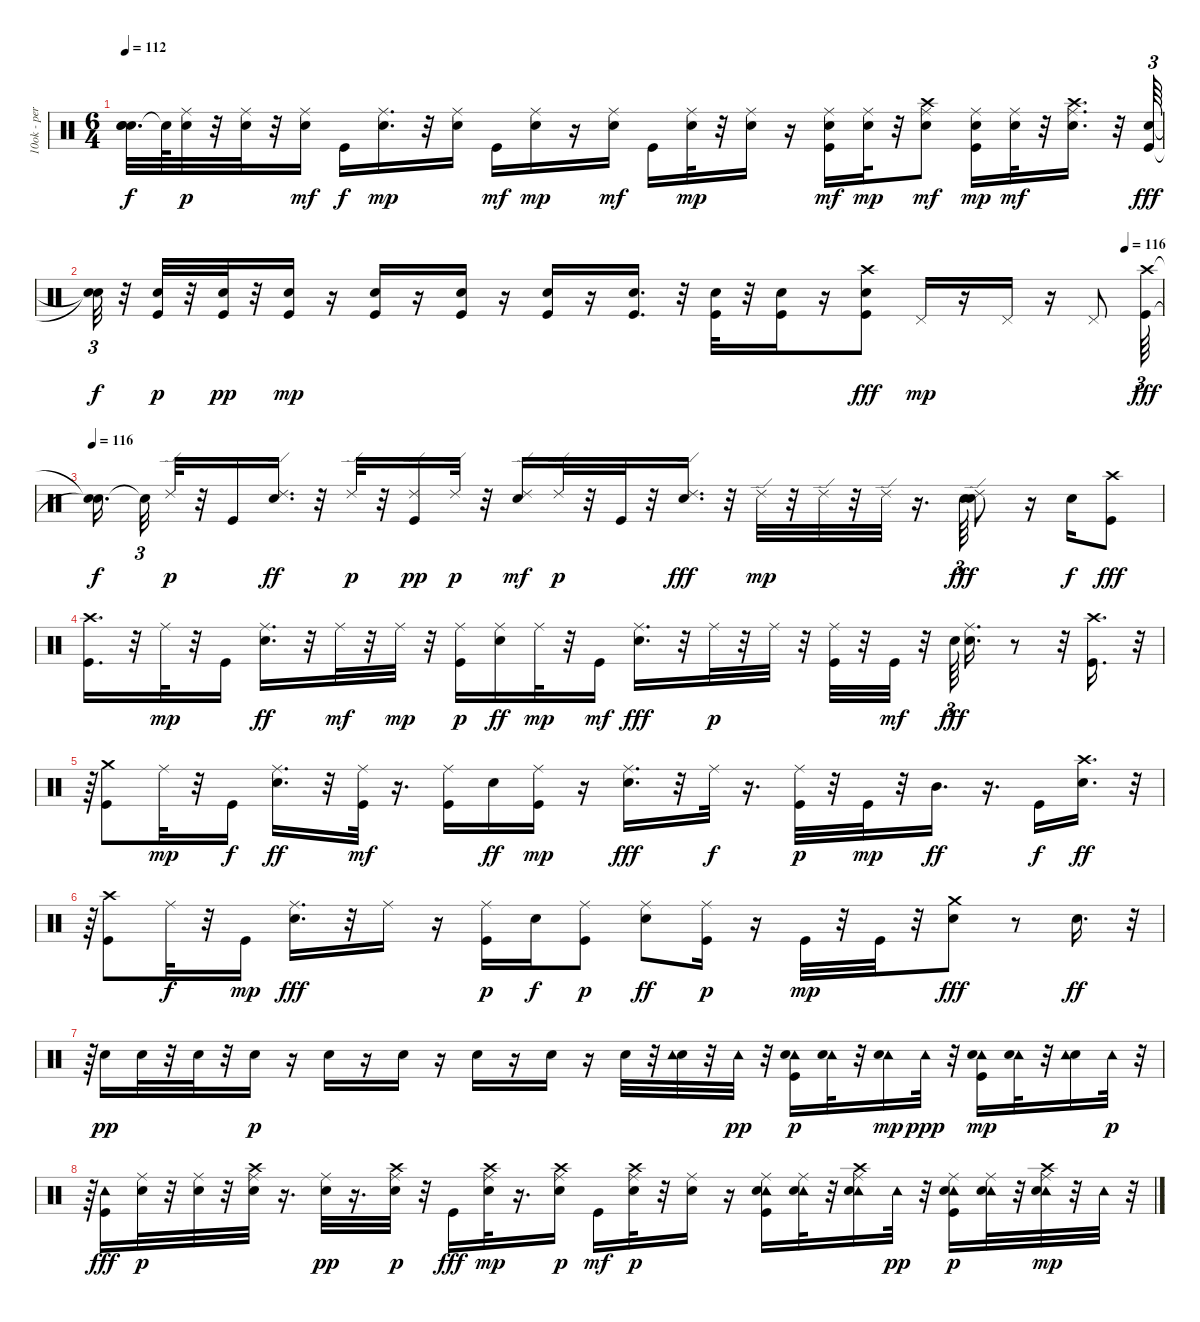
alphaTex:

\track ("10ok - percussioni" "10ok - per") {instrument percussion}
\staff {score}
\articulation defaults
\ts (6 4)
\tempo 112
\clef neutral
\ks c
("Snare (hit)"{t} "Snare (hit)"{t} "Snare (hit)"{t}).32{d dy f} "Snare (hit)"{t}.64 ("Ride (middle)" "Snare (hit) 2").32{dy p} r.32 ("Ride (middle)" "Snare (hit) 2").32 r.32 ("Ride (middle)" "Snare (hit) 2").16{dy mf} "Kick (hit)".16{dy f} ("Ride (middle)" "Snare (hit) 2").16{d dy mp} r.32 ("Ride (middle)" "Snare (hit) 2").16 "Kick (hit)".16{dy mf} ("Ride (middle)" "Snare (hit) 2").16{dy mp} r.16 ("Ride (middle)" "Snare (hit) 2").16{dy mf} "Kick (hit)".16 ("Ride (middle)" "Snare (hit) 2").32{dy mp} r.32 ("Ride (middle)" "Snare (hit) 2").16 r.16 ("Ride (middle)" "Kick (hit)" "Snare (hit) 2").16{dy mf} ("Ride (middle)" "Snare (hit) 2").32{dy mp} r.32 ("Crash high (hit)" "Ride (middle)" "Snare (hit) 2").8{dy mf} ("Ride (middle)" "Kick (hit)" "Snare (hit) 2").16{dy mp} ("Ride (middle)" "Snare (hit) 2").32{dy mf} r.32 ("Crash high (hit)" "Ride (middle)" "Snare (hit) 2").16{d} r.32 ("Snare (hit) 2" "Kick (hit)").64{tu (3 2) dy fff} |
\tempo (116 0.9652777777777778)
("Snare (hit)"{t} "Snare (hit)"{t}).32{tu (3 2) dy f} r.32 ("Snare (hit) 2" "Kick (hit)").32{dy p} r.32 ("Snare (hit) 2" "Kick (hit)").32{dy pp} r.32 ("Snare (hit) 2" "Kick (hit)").16{dy mp} r.16 ("Snare (hit) 2" "Kick (hit)").16 r.16 ("Snare (hit) 2" "Kick (hit)").16 r.16 ("Snare (hit) 2" "Kick (hit)").16 r.16 ("Snare (hit) 2" "Kick (hit)").16{d} r.32 ("Snare (hit) 2" "Kick (hit)").32 r.32 ("Snare (hit) 2" "Kick (hit)").16 r.16 ("Snare (hit) 2" "Kick (hit)" "Crash high (hit)").8{dy fff} "Pedal Hi-Hat (hit)".16{dy mp} r.16 "Pedal Hi-Hat (hit)".16 r.16 "Pedal Hi-Hat (hit)".8 ("Kick (hit)" "Crash high (hit)").64{tu (3 2) dy fff} |
\tempo 116
("Snare (hit)"{t} "Snare (hit)"{t}).16{d dy f beam splitsecondary} "Snare (hit)"{t}.32{tu (3 2)} "Ride (edge) 2".32{dy p} r.32 "Kick (hit)".16 ("Ride (edge) 2" "Snare (hit) 2").16{d dy ff} r.32 "Ride (edge) 2".32{dy p} r.32 ("Ride (edge) 2" "Kick (hit)").16{dy pp} "Ride (edge) 2".32{dy p} r.32 ("Ride (edge) 2" "Snare (hit) 2").16{dy mf} "Ride (edge) 2".32{dy p} r.32 "Kick (hit)".32 r.32 ("Ride (edge) 2" "Snare (hit) 2").16{d dy fff} r.32 "Ride (edge) 2".32{dy mp} r.32 "Ride (edge) 2".32 r.32 "Ride (edge) 2".32 r.16{d} "Snare (hit) 2".64{tu (3 2) dy fff} ("Ride (edge) 2" "Snare (hit) 2").8 r.16 "Snare (hit) 2".16{dy f} ("Crash high (hit)" "Kick (hit)").8{dy fff} |
("Kick (hit)" "Crash high (hit)").16{d} r.32 "Ride (middle)".32{dy mp} r.32 "Kick (hit)".16 ("Ride (middle)" "Snare (hit) 2").16{d dy ff} r.32 "Ride (middle)".32{dy mf} r.32 "Ride (middle)".32{dy mp} r.32 ("Ride (middle)" "Kick (hit)").16{dy p} ("Ride (middle)" "Snare (hit) 2").16{dy ff} "Ride (middle)".32{dy mp} r.32 "Kick (hit)".16{dy mf} ("Ride (middle)" "Snare (hit) 2").16{d dy fff} r.32 "Ride (middle)".32{dy p} r.32 "Ride (middle)".32 r.32 ("Ride (middle)" "Kick (hit)").32 r.32 "Kick (hit)".32{dy mf} r.32 "Snare (hit) 2".64{tu (3 2) dy fff} ("Ride (middle)" "Snare (hit) 2").16{d} r.8 r.32 ("Kick (hit)" "Crash high (hit)").16{d} r.32{tu (3 2)} |
r.64{tu (3 2)} ("Crash medium (hit)" "Kick (hit)").8 "Ride (middle)".32{dy mp} r.32 "Kick (hit)".16{dy f} ("Ride (middle)" "Snare (hit) 2").16{d dy ff} r.32 ("Ride (middle)" "Kick (hit)").32{dy mf} r.16{d} ("Ride (middle)" "Kick (hit)").16 "Snare (hit) 2".16{dy ff} ("Ride (middle)" "Kick (hit)").16{dy mp} r.16 ("Ride (middle)" "Snare (hit) 2").16{d dy fff} r.32 "Ride (middle)".32{dy f} r.16{d} ("Ride (middle)" "Kick (hit)").32{dy p} r.32 "Kick (hit)".32{dy mp} r.32 "Mid Tom (hit)".16{d dy ff} r.16{d} "Kick (hit)".16{dy f} ("Snare (hit) 2" "Crash high (hit)").16{d dy ff} r.32{tu (3 2)} |
r.64{tu (3 2)} ("Kick (hit)" "Crash high (hit)").8 "Ride (middle)".32{dy f} r.32 "Kick (hit)".16{dy mp} ("Ride (middle)" "Snare (hit) 2").16{d dy fff} r.32 "Ride (middle)".16 r.16 ("Ride (middle)" "Kick (hit)").16{dy p} "Snare (hit) 2".16{dy f} ("Ride (middle)" "Kick (hit)").8{dy p} ("Ride (middle)" "Snare (hit) 2").8{dy ff} ("Ride (middle)" "Kick (hit)").16{dy p} r.16 "Kick (hit)".32{dy mp} r.32 "Kick (hit)".32 r.32 ("Snare (hit) 2" "Crash medium (hit)").8{dy fff} r.8 "Snare (hit) 2".16{d dy ff} r.32{tu (3 2)} |
r.64{tu (3 2)} "Snare (hit) 2".16{dy pp} "Snare (hit) 2".32 r.32 "Snare (hit) 2".32 r.32 "Snare (hit) 2".16{dy p} r.16 "Snare (hit) 2".16 r.16 "Snare (hit) 2".16 r.16 "Snare (hit) 2".16 r.16 "Snare (hit) 2".16 r.16 "Snare (hit) 2".32 r.32 ("Snare (hit) 2" "Tambourine (hit)").32 r.32 "Tambourine (hit)".32{dy pp} r.32 ("Tambourine (hit)" "Kick (hit)" "Snare (hit) 2").16{dy p} ("Tambourine (hit)" "Snare (hit) 2").32 r.32 ("Tambourine (hit)" "Snare (hit) 2").16{dy mp} "Tambourine (hit)".32{dy ppp} r.32 ("Tambourine (hit)" "Kick (hit)" "Snare (hit) 2").16{dy mp} ("Tambourine (hit)" "Snare (hit) 2").32 r.32 ("Snare (hit) 2" "Tambourine (hit)").16 "Tambourine (hit)".32{dy p} r.32{tu (3 2)} |
r.64{tu (3 2)} ("Tambourine (hit)" "Kick (hit)").16{dy fff} ("Ride (middle)" "Snare (hit) 2").32{dy p} r.32 ("Ride (middle)" "Snare (hit) 2").32 r.32 ("Crash high (hit)" "Ride (middle)" "Snare (hit) 2").32 r.16{d} ("Ride (middle)" "Snare (hit) 2").32{dy pp} r.16{d} ("Ride (middle)" "Crash high (hit)" "Snare (hit) 2").32{dy p} r.32 "Kick (hit)".16{dy fff} ("Ride (middle)" "Crash high (hit)" "Snare (hit) 2").32{dy mp} r.16{d} ("Crash high (hit)" "Ride (middle)" "Snare (hit) 2").16{dy p} "Kick (hit)".16{dy mf} ("Crash high (hit)" "Ride (middle)" "Snare (hit) 2").32{dy p} r.32 ("Ride (middle)" "Snare (hit) 2").16 r.16 ("Tambourine (hit)" "Kick (hit)" "Ride (middle)" "Snare (hit) 2").16 ("Tambourine (hit)" "Ride (middle)" "Snare (hit) 2").32 r.32 ("Tambourine (hit)" "Crash high (hit)" "Ride (middle)" "Snare (hit) 2").16 "Tambourine (hit)".32{dy pp} r.32 ("Tambourine (hit)" "Kick (hit)" "Ride (middle)" "Snare (hit) 2").16{dy p} ("Tambourine (hit)" "Ride (middle)" "Snare (hit) 2").32 r.32 ("Tambourine (hit)" "Crash high (hit)" "Ride (middle)" "Snare (hit) 2").32{dy mp} r.32 "Tambourine (hit)".32 r.32{tu (3 2)}
